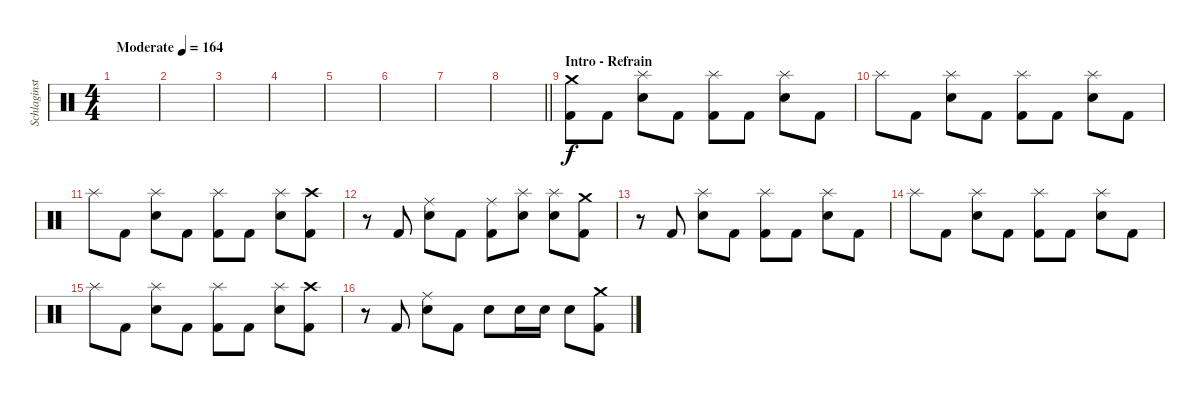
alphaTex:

\track ("Schlaginstrumente - Auswahl" "Schlaginst") {instrument percussion}
\staff {score}
\articulation defaults
\ts (4 4)
\tempo (164 "Moderate")
\clef neutral
\ks c
|
|
|
|
|
|
|
\barLineRight lightlight
|
\section ("" "Intro - Refrain")
("Crash medium (hit)" "Kick (hit) 2").8 "Kick (hit) 2".8 ("Splash (hit)" "Electric Snare (hit)").8 "Kick (hit) 2".8 ("Splash (hit)" "Kick (hit) 2").8 "Kick (hit) 2".8 ("Splash (hit)" "Electric Snare (hit)").8 "Kick (hit) 2".8 |
"Splash (hit)".8 "Kick (hit) 2".8 ("Splash (hit)" "Electric Snare (hit)").8 "Kick (hit) 2".8 ("Splash (hit)" "Kick (hit) 2").8 "Kick (hit) 2".8 ("Splash (hit)" "Electric Snare (hit)").8 "Kick (hit) 2".8 |
"Splash (hit)".8 "Kick (hit) 2".8 ("Splash (hit)" "Electric Snare (hit)").8 "Kick (hit) 2".8 ("Splash (hit)" "Kick (hit) 2").8 "Kick (hit) 2".8 ("Splash (hit)" "Electric Snare (hit)").8 ("Crash high (hit)" "Kick (hit) 2").8 |
r.8 "Kick (hit) 2".8 ("Ride (middle)" "Electric Snare (hit)").8 "Kick (hit) 2".8 ("Ride (middle)" "Kick (hit) 2").8 ("Splash (hit)" "Electric Snare (hit)").8 ("Splash (hit)" "Electric Snare (hit)").8 ("Crash medium (hit)" "Kick (hit) 2").8 |
r.8 "Kick (hit) 2".8 ("Splash (hit)" "Electric Snare (hit)").8 "Kick (hit) 2".8 ("Splash (hit)" "Kick (hit) 2").8 "Kick (hit) 2".8 ("Splash (hit)" "Electric Snare (hit)").8 "Kick (hit) 2".8 |
"Splash (hit)".8 "Kick (hit) 2".8 ("Splash (hit)" "Electric Snare (hit)").8 "Kick (hit) 2".8 ("Splash (hit)" "Kick (hit) 2").8 "Kick (hit) 2".8 ("Splash (hit)" "Electric Snare (hit)").8 "Kick (hit) 2".8 |
"Splash (hit)".8 "Kick (hit) 2".8 ("Splash (hit)" "Electric Snare (hit)").8 "Kick (hit) 2".8 ("Splash (hit)" "Kick (hit) 2").8 "Kick (hit) 2".8 ("Splash (hit)" "Electric Snare (hit)").8 ("Crash high (hit)" "Kick (hit) 2").8 |
r.8 "Kick (hit) 2".8 ("Ride (middle)" "Electric Snare (hit)").8 "Kick (hit) 2".8 "Electric Snare (hit)".8 "Electric Snare (hit)".16 "Electric Snare (hit)".16 "Electric Snare (hit)".8 ("Crash medium (hit)" "Kick (hit) 2").8
